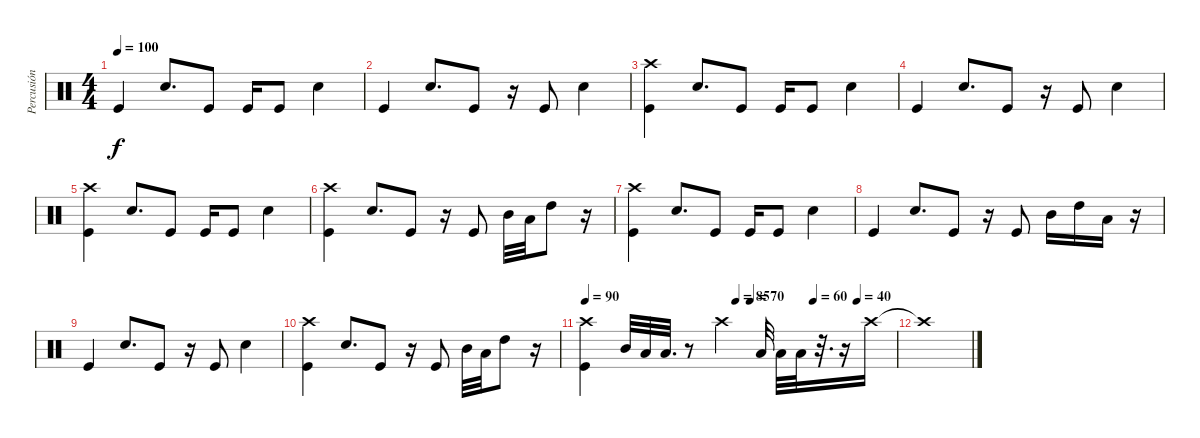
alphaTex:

\track ("Percusión" "Percusión") {instrument percussion}
\staff {score}
\articulation defaults
\ts (4 4)
\tempo 100
\clef neutral
\ks c "Kick (hit)".4{dy f} "Snare (hit) 2".8{d} "Kick (hit)".8 "Kick (hit)".16 "Kick (hit)".8 "Snare (hit) 2".4
|
"Kick (hit)".4 "Snare (hit) 2".8{d} "Kick (hit)".8 r.16 "Kick (hit)".8 "Snare (hit) 2".4 |
("Crash high (hit)" "Kick (hit)").4 "Snare (hit) 2".8{d} "Kick (hit)".8 "Kick (hit)".16 "Kick (hit)".8 "Snare (hit) 2".4 |
"Kick (hit)".4 "Snare (hit) 2".8{d} "Kick (hit)".8 r.16 "Kick (hit)".8 "Snare (hit) 2".4 |
("Crash high (hit)" "Kick (hit)").4 "Snare (hit) 2".8{d} "Kick (hit)".8 "Kick (hit)".16 "Kick (hit)".8 "Snare (hit) 2".4 |
("Kick (hit)" "Crash high (hit)").4 "Snare (hit) 2".8{d} "Kick (hit)".8 r.16 "Kick (hit)".8 "Mid Tom (hit)".32 "Low Tom (hit)".32 "High Tom (hit)".8 r.16 |
("Crash high (hit)" "Kick (hit)").4 "Snare (hit) 2".8{d} "Kick (hit)".8 "Kick (hit)".16 "Kick (hit)".8 "Snare (hit) 2".4 |
"Kick (hit)".4 "Snare (hit) 2".8{d} "Kick (hit)".8 r.16 "Kick (hit)".8 "Mid Tom (hit)".16 "High Tom (hit)".16 "Low Floor Tom (hit)".16 r.16 |
"Kick (hit)".4 "Snare (hit) 2".8{d} "Kick (hit)".8 r.16 "Kick (hit)".8 "Snare (hit) 2".4 |
("Kick (hit)" "Crash high (hit)").4 "Snare (hit) 2".8{d} "Kick (hit)".8 r.16 "Kick (hit)".8 "Mid Tom (hit)".32 "Low Tom (hit)".32 "High Tom (hit)".8 r.16 |
\tempo 90
\tempo (85 0.484375)
\tempo (60 0.734375)
\tempo (40 0.875)
\tempo (70 0.53125)
("Kick (hit)" "Crash high (hit)").4 "Mid Tom (hit)".32 "Low Tom (hit)".32 "Low Floor Tom (hit)".32{d} r.8 "Crash high (hit)".4 "Low Tom (hit)".32 "Low Floor Tom (hit)".32 "Low Tom (hit)".32 r.32{d} r.16 "Crash high (hit)".16 |
"Crash high (hit)"{t}.1
